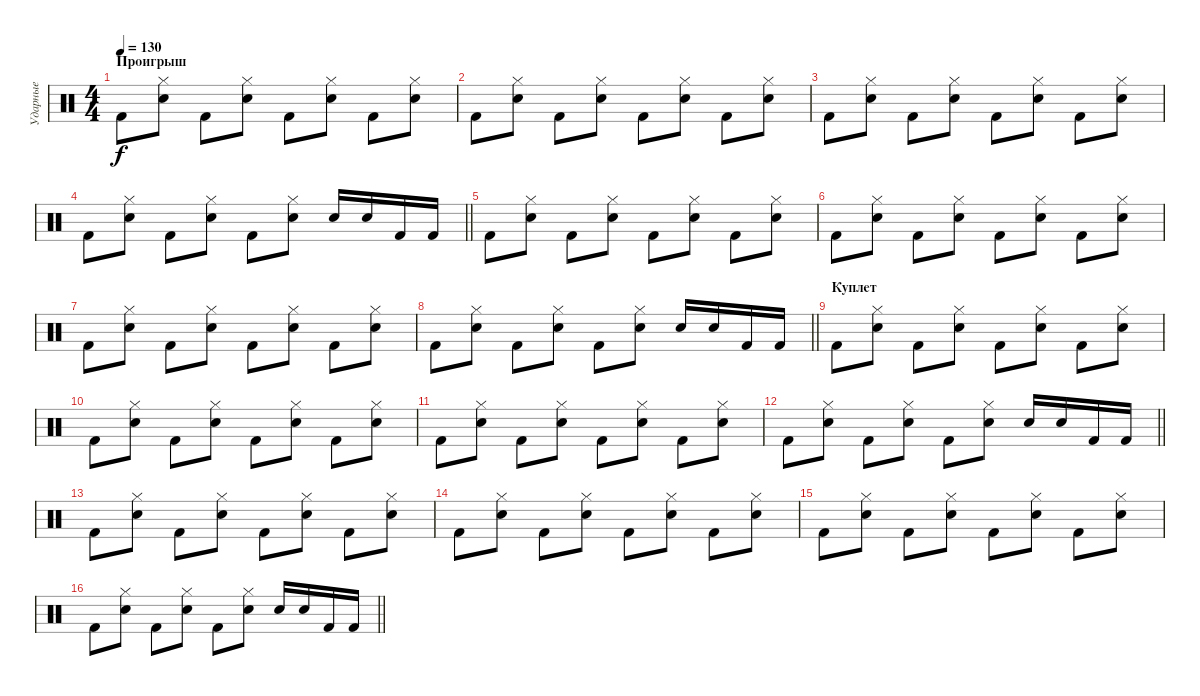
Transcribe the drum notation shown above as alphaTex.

\track ("Ударные" "Ударные") {instrument percussion}
\staff {score}
\articulation defaults
\ts (4 4)
\section ("" "Проигрыш")
\tempo 130
\clef neutral
\ks c "Kick (hit) 2".8{dy f}
("Hi-Hat (closed)" "Snare (hit) 2").8 "Kick (hit) 2".8 ("Hi-Hat (closed)" "Snare (hit) 2").8 "Kick (hit) 2".8 ("Hi-Hat (closed)" "Snare (hit) 2").8 "Kick (hit) 2".8 ("Hi-Hat (closed)" "Snare (hit) 2").8 |
"Kick (hit) 2".8 ("Hi-Hat (closed)" "Snare (hit) 2").8 "Kick (hit) 2".8 ("Hi-Hat (closed)" "Snare (hit) 2").8 "Kick (hit) 2".8 ("Hi-Hat (closed)" "Snare (hit) 2").8 "Kick (hit) 2".8 ("Hi-Hat (closed)" "Snare (hit) 2").8 |
"Kick (hit) 2".8 ("Hi-Hat (closed)" "Snare (hit) 2").8 "Kick (hit) 2".8 ("Hi-Hat (closed)" "Snare (hit) 2").8 "Kick (hit) 2".8 ("Hi-Hat (closed)" "Snare (hit) 2").8 "Kick (hit) 2".8 ("Hi-Hat (closed)" "Snare (hit) 2").8 |
\barLineRight lightlight "Kick (hit) 2".8
("Hi-Hat (closed)" "Snare (hit) 2").8 "Kick (hit) 2".8 ("Hi-Hat (closed)" "Snare (hit) 2").8 "Kick (hit) 2".8 ("Hi-Hat (closed)" "Snare (hit) 2").8 "Snare (hit) 2".16 "Snare (hit) 2".16 "Kick (hit) 2".16 "Kick (hit) 2".16 |
"Kick (hit) 2".8 ("Hi-Hat (closed)" "Snare (hit) 2").8 "Kick (hit) 2".8 ("Hi-Hat (closed)" "Snare (hit) 2").8 "Kick (hit) 2".8 ("Hi-Hat (closed)" "Snare (hit) 2").8 "Kick (hit) 2".8 ("Hi-Hat (closed)" "Snare (hit) 2").8 |
"Kick (hit) 2".8 ("Hi-Hat (closed)" "Snare (hit) 2").8 "Kick (hit) 2".8 ("Hi-Hat (closed)" "Snare (hit) 2").8 "Kick (hit) 2".8 ("Hi-Hat (closed)" "Snare (hit) 2").8 "Kick (hit) 2".8 ("Hi-Hat (closed)" "Snare (hit) 2").8 |
"Kick (hit) 2".8 ("Hi-Hat (closed)" "Snare (hit) 2").8 "Kick (hit) 2".8 ("Hi-Hat (closed)" "Snare (hit) 2").8 "Kick (hit) 2".8 ("Hi-Hat (closed)" "Snare (hit) 2").8 "Kick (hit) 2".8 ("Hi-Hat (closed)" "Snare (hit) 2").8 |
\barLineRight lightlight "Kick (hit) 2".8
("Hi-Hat (closed)" "Snare (hit) 2").8 "Kick (hit) 2".8 ("Hi-Hat (closed)" "Snare (hit) 2").8 "Kick (hit) 2".8 ("Hi-Hat (closed)" "Snare (hit) 2").8 "Snare (hit) 2".16 "Snare (hit) 2".16 "Kick (hit) 2".16 "Kick (hit) 2".16 |
\section ("" "Куплет")
"Kick (hit) 2".8 ("Hi-Hat (closed)" "Snare (hit) 2").8 "Kick (hit) 2".8 ("Hi-Hat (closed)" "Snare (hit) 2").8 "Kick (hit) 2".8 ("Hi-Hat (closed)" "Snare (hit) 2").8 "Kick (hit) 2".8 ("Hi-Hat (closed)" "Snare (hit) 2").8 |
"Kick (hit) 2".8 ("Hi-Hat (closed)" "Snare (hit) 2").8 "Kick (hit) 2".8 ("Hi-Hat (closed)" "Snare (hit) 2").8 "Kick (hit) 2".8 ("Hi-Hat (closed)" "Snare (hit) 2").8 "Kick (hit) 2".8 ("Hi-Hat (closed)" "Snare (hit) 2").8 |
"Kick (hit) 2".8 ("Hi-Hat (closed)" "Snare (hit) 2").8 "Kick (hit) 2".8 ("Hi-Hat (closed)" "Snare (hit) 2").8 "Kick (hit) 2".8 ("Hi-Hat (closed)" "Snare (hit) 2").8 "Kick (hit) 2".8 ("Hi-Hat (closed)" "Snare (hit) 2").8 |
\barLineRight lightlight "Kick (hit) 2".8
("Hi-Hat (closed)" "Snare (hit) 2").8 "Kick (hit) 2".8 ("Hi-Hat (closed)" "Snare (hit) 2").8 "Kick (hit) 2".8 ("Hi-Hat (closed)" "Snare (hit) 2").8 "Snare (hit) 2".16 "Snare (hit) 2".16 "Kick (hit) 2".16 "Kick (hit) 2".16 |
"Kick (hit) 2".8 ("Hi-Hat (closed)" "Snare (hit) 2").8 "Kick (hit) 2".8 ("Hi-Hat (closed)" "Snare (hit) 2").8 "Kick (hit) 2".8 ("Hi-Hat (closed)" "Snare (hit) 2").8 "Kick (hit) 2".8 ("Hi-Hat (closed)" "Snare (hit) 2").8 |
"Kick (hit) 2".8 ("Hi-Hat (closed)" "Snare (hit) 2").8 "Kick (hit) 2".8 ("Hi-Hat (closed)" "Snare (hit) 2").8 "Kick (hit) 2".8 ("Hi-Hat (closed)" "Snare (hit) 2").8 "Kick (hit) 2".8 ("Hi-Hat (closed)" "Snare (hit) 2").8 |
"Kick (hit) 2".8 ("Hi-Hat (closed)" "Snare (hit) 2").8 "Kick (hit) 2".8 ("Hi-Hat (closed)" "Snare (hit) 2").8 "Kick (hit) 2".8 ("Hi-Hat (closed)" "Snare (hit) 2").8 "Kick (hit) 2".8 ("Hi-Hat (closed)" "Snare (hit) 2").8 |
\barLineRight lightlight "Kick (hit) 2".8
("Hi-Hat (closed)" "Snare (hit) 2").8 "Kick (hit) 2".8 ("Hi-Hat (closed)" "Snare (hit) 2").8 "Kick (hit) 2".8 ("Hi-Hat (closed)" "Snare (hit) 2").8 "Snare (hit) 2".16 "Snare (hit) 2".16 "Kick (hit) 2".16 "Kick (hit) 2".16
